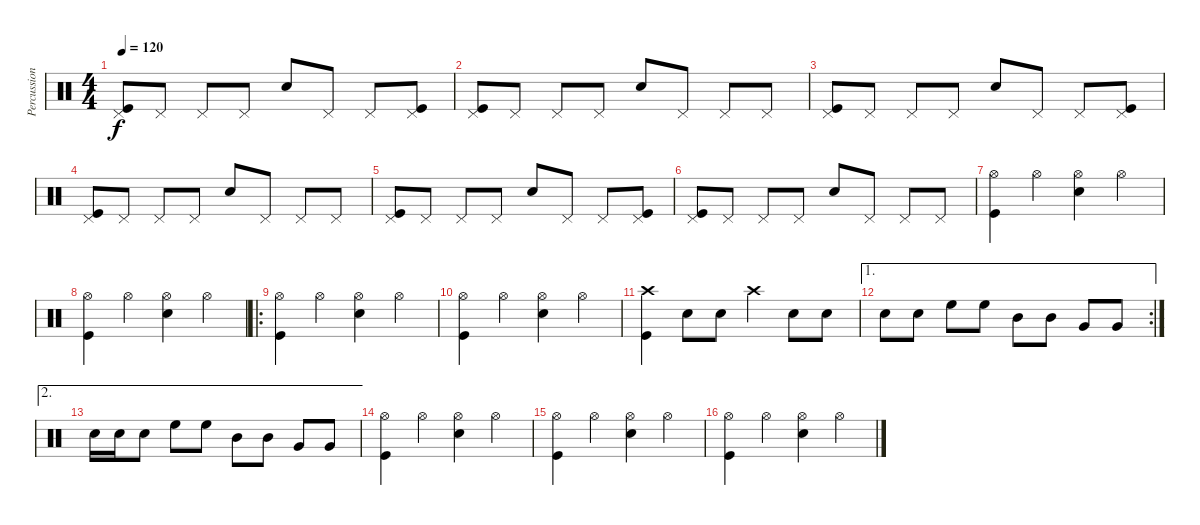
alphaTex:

\track ("Percussion" "Percussion") {instrument percussion}
\staff {score}
\articulation defaults
\ts (4 4)
\tempo 120
\clef neutral
\ks c
("Pedal Hi-Hat (hit)" "Kick (hit)").8{dy f} "Pedal Hi-Hat (hit)".8 "Pedal Hi-Hat (hit)".8 "Pedal Hi-Hat (hit)".8 "Snare (hit) 2".8 "Pedal Hi-Hat (hit)".8 "Pedal Hi-Hat (hit)".8 ("Pedal Hi-Hat (hit)" "Kick (hit)").8 |
("Pedal Hi-Hat (hit)" "Kick (hit)").8 "Pedal Hi-Hat (hit)".8 "Pedal Hi-Hat (hit)".8 "Pedal Hi-Hat (hit)".8 "Snare (hit) 2".8 "Pedal Hi-Hat (hit)".8 "Pedal Hi-Hat (hit)".8 "Pedal Hi-Hat (hit)".8 |
("Pedal Hi-Hat (hit)" "Kick (hit)").8 "Pedal Hi-Hat (hit)".8 "Pedal Hi-Hat (hit)".8 "Pedal Hi-Hat (hit)".8 "Snare (hit) 2".8 "Pedal Hi-Hat (hit)".8 "Pedal Hi-Hat (hit)".8 ("Pedal Hi-Hat (hit)" "Kick (hit)").8 |
("Pedal Hi-Hat (hit)" "Kick (hit)").8 "Pedal Hi-Hat (hit)".8 "Pedal Hi-Hat (hit)".8 "Pedal Hi-Hat (hit)".8 "Snare (hit) 2".8 "Pedal Hi-Hat (hit)".8 "Pedal Hi-Hat (hit)".8 "Pedal Hi-Hat (hit)".8 |
("Pedal Hi-Hat (hit)" "Kick (hit)").8 "Pedal Hi-Hat (hit)".8 "Pedal Hi-Hat (hit)".8 "Pedal Hi-Hat (hit)".8 "Snare (hit) 2".8 "Pedal Hi-Hat (hit)".8 "Pedal Hi-Hat (hit)".8 ("Pedal Hi-Hat (hit)" "Kick (hit)").8 |
("Pedal Hi-Hat (hit)" "Kick (hit)").8 "Pedal Hi-Hat (hit)".8 "Pedal Hi-Hat (hit)".8 "Pedal Hi-Hat (hit)".8 "Snare (hit) 2".8 "Pedal Hi-Hat (hit)".8 "Pedal Hi-Hat (hit)".8 "Pedal Hi-Hat (hit)".8 |
("Hi-Hat (open)" "Kick (hit)").4 "Hi-Hat (open)".4 ("Hi-Hat (open)" "Snare (hit) 2").4 "Hi-Hat (open)".4 |
("Hi-Hat (open)" "Kick (hit)").4 "Hi-Hat (open)".4 ("Hi-Hat (open)" "Snare (hit) 2").4 "Hi-Hat (open)".4 |
\ro
("Hi-Hat (open)" "Kick (hit)").4 "Hi-Hat (open)".4 ("Hi-Hat (open)" "Snare (hit) 2").4 "Hi-Hat (open)".4 |
("Hi-Hat (open)" "Kick (hit)").4 "Hi-Hat (open)".4 ("Hi-Hat (open)" "Snare (hit) 2").4 "Hi-Hat (open)".4 |
("Crash high (hit)" "Kick (hit)").4 "Snare (hit) 2".8 "Snare (hit) 2".8 "Crash high (hit)".4 "Snare (hit) 2".8 "Snare (hit) 2".8 |
\ae 1
\rc 2 "Snare (hit) 2".8 "Snare (hit) 2".8 "High Floor Tom (hit)".8 "High Floor Tom (hit)".8 "Mid Tom (hit)".8 "Mid Tom (hit)".8 "Very Low Tom (hit)".8 "Very Low Tom (hit)".8
|
\ae 2 "Snare (hit) 2".16 "Snare (hit) 2".16 "Snare (hit) 2".8 "High Floor Tom (hit)".8 "High Floor Tom (hit)".8 "Mid Tom (hit)".8 "Mid Tom (hit)".8 "Very Low Tom (hit)".8 "Very Low Tom (hit)".8
|
("Hi-Hat (open)" "Kick (hit)").4 "Hi-Hat (open)".4 ("Hi-Hat (open)" "Snare (hit) 2").4 "Hi-Hat (open)".4 |
("Hi-Hat (open)" "Kick (hit)").4 "Hi-Hat (open)".4 ("Hi-Hat (open)" "Snare (hit) 2").4 "Hi-Hat (open)".4 |
("Hi-Hat (open)" "Kick (hit)").4 "Hi-Hat (open)".4 ("Hi-Hat (open)" "Snare (hit) 2").4 "Hi-Hat (open)".4
